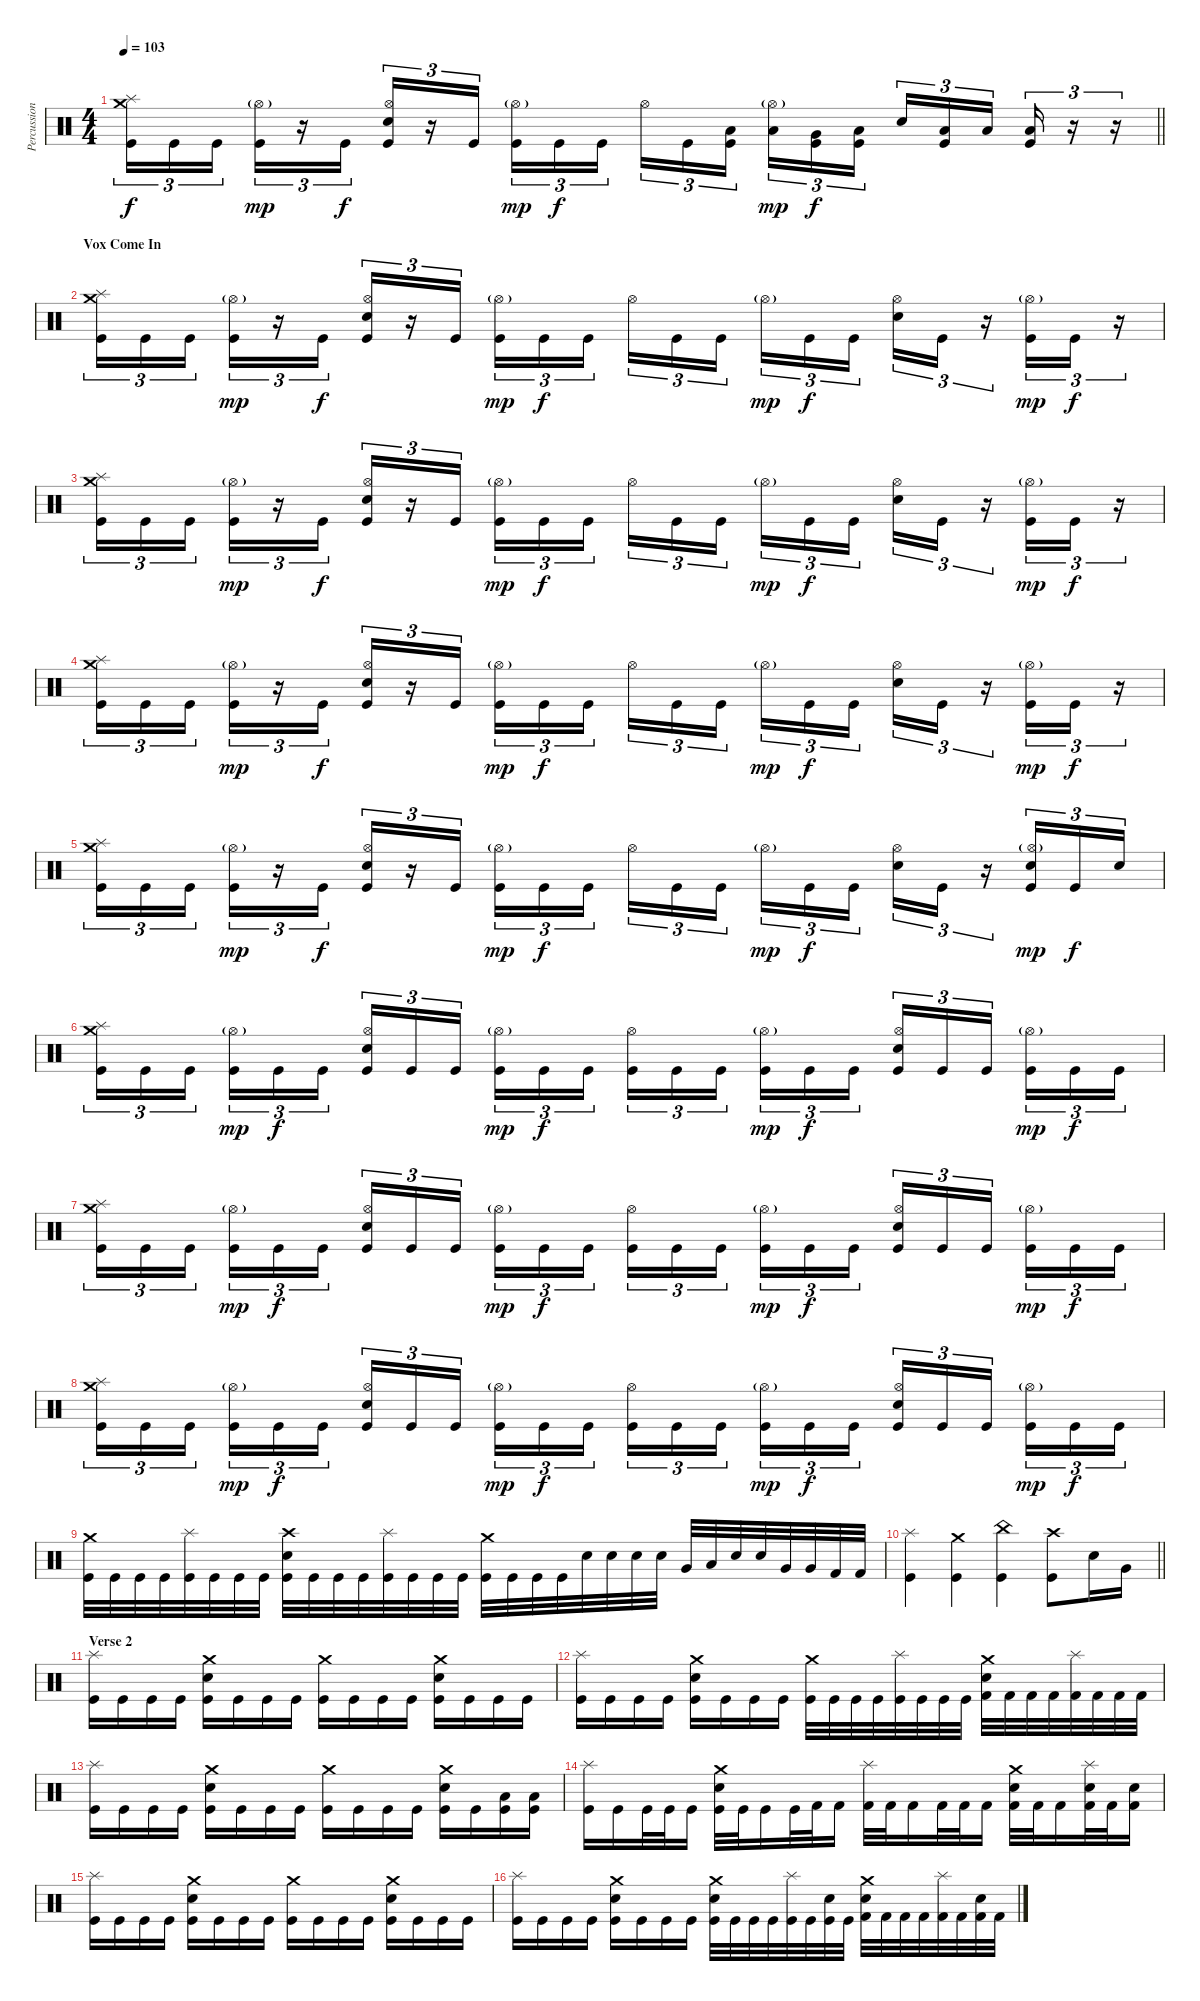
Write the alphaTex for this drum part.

\track ("Percussion" "Percussion") {instrument percussion}
\staff {score}
\articulation defaults
\ts (4 4)
\tempo 103
\clef neutral
\barLineRight lightlight
\ks c
("Crash medium (hit)" "Splash (hit)" "Kick (hit)").16{tu (3 2) dy f} "Kick (hit)".16{tu (3 2)} "Kick (hit)".16{tu (3 2) beam splitsecondary} ("Hi-Hat (open)"{g} "Kick (hit)").16{tu (3 2) dy mp} r.16{tu (3 2)} "Kick (hit)".16{tu (3 2) dy f} ("Hi-Hat (open)" "Electric Snare (hit)" "Kick (hit)").16{tu (3 2)} r.16{tu (3 2)} "Kick (hit)".16{tu (3 2) beam splitsecondary} ("Hi-Hat (open)"{g} "Kick (hit)").16{tu (3 2) dy mp} "Kick (hit)".16{tu (3 2) dy f} "Kick (hit)".16{tu (3 2)} "Hi-Hat (open)".16{tu (3 2)} "Kick (hit)".16{tu (3 2)} ("Low Tom (hit)" "Kick (hit)").16{tu (3 2) beam splitsecondary} ("Hi-Hat (open)"{g} "Low Tom (hit)").16{tu (3 2) dy mp} ("Very Low Tom (hit)" "Kick (hit)").16{tu (3 2) dy f} ("Low Tom (hit)" "Kick (hit)").16{tu (3 2)} "Electric Snare (hit)".16{tu (3 2)} ("Low Floor Tom (hit)" "Kick (hit)").16{tu (3 2)} "Low Floor Tom (hit)".16{tu (3 2) beam splitsecondary} ("Low Floor Tom (hit)" "Kick (hit)").16{tu (3 2)} r.16{tu (3 2)} r.16{tu (3 2)} |
\section ("" "Vox Come In")
("Crash medium (hit)" "Splash (hit)" "Kick (hit)").16{tu (3 2)} "Kick (hit)".16{tu (3 2)} "Kick (hit)".16{tu (3 2) beam splitsecondary} ("Hi-Hat (open)"{g} "Kick (hit)").16{tu (3 2) dy mp} r.16{tu (3 2)} "Kick (hit)".16{tu (3 2) dy f} ("Hi-Hat (open)" "Electric Snare (hit)" "Kick (hit)").16{tu (3 2)} r.16{tu (3 2)} "Kick (hit)".16{tu (3 2) beam splitsecondary} ("Hi-Hat (open)"{g} "Kick (hit)").16{tu (3 2) dy mp} "Kick (hit)".16{tu (3 2) dy f} "Kick (hit)".16{tu (3 2)} "Hi-Hat (open)".16{tu (3 2)} "Kick (hit)".16{tu (3 2)} "Kick (hit)".16{tu (3 2) beam splitsecondary} "Hi-Hat (open)"{g}.16{tu (3 2) dy mp} "Kick (hit)".16{tu (3 2) dy f} "Kick (hit)".16{tu (3 2)} ("Hi-Hat (open)" "Electric Snare (hit)").16{tu (3 2)} "Kick (hit)".16{tu (3 2)} r.16{tu (3 2)} ("Hi-Hat (open)"{g} "Kick (hit)").16{tu (3 2) dy mp} "Kick (hit)".16{tu (3 2) dy f} r.16{tu (3 2)} |
("Crash medium (hit)" "Splash (hit)" "Kick (hit)").16{tu (3 2)} "Kick (hit)".16{tu (3 2)} "Kick (hit)".16{tu (3 2) beam splitsecondary} ("Hi-Hat (open)"{g} "Kick (hit)").16{tu (3 2) dy mp} r.16{tu (3 2)} "Kick (hit)".16{tu (3 2) dy f} ("Hi-Hat (open)" "Electric Snare (hit)" "Kick (hit)").16{tu (3 2)} r.16{tu (3 2)} "Kick (hit)".16{tu (3 2) beam splitsecondary} ("Hi-Hat (open)"{g} "Kick (hit)").16{tu (3 2) dy mp} "Kick (hit)".16{tu (3 2) dy f} "Kick (hit)".16{tu (3 2)} "Hi-Hat (open)".16{tu (3 2)} "Kick (hit)".16{tu (3 2)} "Kick (hit)".16{tu (3 2) beam splitsecondary} "Hi-Hat (open)"{g}.16{tu (3 2) dy mp} "Kick (hit)".16{tu (3 2) dy f} "Kick (hit)".16{tu (3 2)} ("Hi-Hat (open)" "Electric Snare (hit)").16{tu (3 2)} "Kick (hit)".16{tu (3 2)} r.16{tu (3 2)} ("Hi-Hat (open)"{g} "Kick (hit)").16{tu (3 2) dy mp} "Kick (hit)".16{tu (3 2) dy f} r.16{tu (3 2)} |
("Crash medium (hit)" "Splash (hit)" "Kick (hit)").16{tu (3 2)} "Kick (hit)".16{tu (3 2)} "Kick (hit)".16{tu (3 2) beam splitsecondary} ("Hi-Hat (open)"{g} "Kick (hit)").16{tu (3 2) dy mp} r.16{tu (3 2)} "Kick (hit)".16{tu (3 2) dy f} ("Hi-Hat (open)" "Electric Snare (hit)" "Kick (hit)").16{tu (3 2)} r.16{tu (3 2)} "Kick (hit)".16{tu (3 2) beam splitsecondary} ("Hi-Hat (open)"{g} "Kick (hit)").16{tu (3 2) dy mp} "Kick (hit)".16{tu (3 2) dy f} "Kick (hit)".16{tu (3 2)} "Hi-Hat (open)".16{tu (3 2)} "Kick (hit)".16{tu (3 2)} "Kick (hit)".16{tu (3 2) beam splitsecondary} "Hi-Hat (open)"{g}.16{tu (3 2) dy mp} "Kick (hit)".16{tu (3 2) dy f} "Kick (hit)".16{tu (3 2)} ("Hi-Hat (open)" "Electric Snare (hit)").16{tu (3 2)} "Kick (hit)".16{tu (3 2)} r.16{tu (3 2)} ("Hi-Hat (open)"{g} "Kick (hit)").16{tu (3 2) dy mp} "Kick (hit)".16{tu (3 2) dy f} r.16{tu (3 2)} |
("Crash medium (hit)" "Splash (hit)" "Kick (hit)").16{tu (3 2)} "Kick (hit)".16{tu (3 2)} "Kick (hit)".16{tu (3 2) beam splitsecondary} ("Hi-Hat (open)"{g} "Kick (hit)").16{tu (3 2) dy mp} r.16{tu (3 2)} "Kick (hit)".16{tu (3 2) dy f} ("Hi-Hat (open)" "Electric Snare (hit)" "Kick (hit)").16{tu (3 2)} r.16{tu (3 2)} "Kick (hit)".16{tu (3 2) beam splitsecondary} ("Hi-Hat (open)"{g} "Kick (hit)").16{tu (3 2) dy mp} "Kick (hit)".16{tu (3 2) dy f} "Kick (hit)".16{tu (3 2)} "Hi-Hat (open)".16{tu (3 2)} "Kick (hit)".16{tu (3 2)} "Kick (hit)".16{tu (3 2) beam splitsecondary} "Hi-Hat (open)"{g}.16{tu (3 2) dy mp} "Kick (hit)".16{tu (3 2) dy f} "Kick (hit)".16{tu (3 2)} ("Hi-Hat (open)" "Electric Snare (hit)").16{tu (3 2)} "Kick (hit)".16{tu (3 2)} r.16{tu (3 2)} ("Hi-Hat (open)"{g} "Electric Snare (hit)" "Kick (hit)").16{tu (3 2) dy mp} "Kick (hit)".16{tu (3 2) dy f} "Electric Snare (hit)".16{tu (3 2)} |
("Crash medium (hit)" "Splash (hit)" "Kick (hit)").16{tu (3 2)} "Kick (hit)".16{tu (3 2)} "Kick (hit)".16{tu (3 2) beam splitsecondary} ("Hi-Hat (open)"{g} "Kick (hit)").16{tu (3 2) dy mp} "Kick (hit)".16{tu (3 2) dy f} "Kick (hit)".16{tu (3 2)} ("Hi-Hat (open)" "Electric Snare (hit)" "Kick (hit)").16{tu (3 2)} "Kick (hit)".16{tu (3 2)} "Kick (hit)".16{tu (3 2) beam splitsecondary} ("Hi-Hat (open)"{g} "Kick (hit)").16{tu (3 2) dy mp} "Kick (hit)".16{tu (3 2) dy f} "Kick (hit)".16{tu (3 2)} ("Hi-Hat (open)" "Kick (hit)").16{tu (3 2)} "Kick (hit)".16{tu (3 2)} "Kick (hit)".16{tu (3 2) beam splitsecondary} ("Hi-Hat (open)"{g} "Kick (hit)").16{tu (3 2) dy mp} "Kick (hit)".16{tu (3 2) dy f} "Kick (hit)".16{tu (3 2)} ("Hi-Hat (open)" "Electric Snare (hit)" "Kick (hit)").16{tu (3 2)} "Kick (hit)".16{tu (3 2)} "Kick (hit)".16{tu (3 2) beam splitsecondary} ("Hi-Hat (open)"{g} "Kick (hit)").16{tu (3 2) dy mp} "Kick (hit)".16{tu (3 2) dy f} "Kick (hit)".16{tu (3 2)} |
("Crash medium (hit)" "Splash (hit)" "Kick (hit)").16{tu (3 2)} "Kick (hit)".16{tu (3 2)} "Kick (hit)".16{tu (3 2) beam splitsecondary} ("Hi-Hat (open)"{g} "Kick (hit)").16{tu (3 2) dy mp} "Kick (hit)".16{tu (3 2) dy f} "Kick (hit)".16{tu (3 2)} ("Hi-Hat (open)" "Electric Snare (hit)" "Kick (hit)").16{tu (3 2)} "Kick (hit)".16{tu (3 2)} "Kick (hit)".16{tu (3 2) beam splitsecondary} ("Hi-Hat (open)"{g} "Kick (hit)").16{tu (3 2) dy mp} "Kick (hit)".16{tu (3 2) dy f} "Kick (hit)".16{tu (3 2)} ("Hi-Hat (open)" "Kick (hit)").16{tu (3 2)} "Kick (hit)".16{tu (3 2)} "Kick (hit)".16{tu (3 2) beam splitsecondary} ("Hi-Hat (open)"{g} "Kick (hit)").16{tu (3 2) dy mp} "Kick (hit)".16{tu (3 2) dy f} "Kick (hit)".16{tu (3 2)} ("Hi-Hat (open)" "Electric Snare (hit)" "Kick (hit)").16{tu (3 2)} "Kick (hit)".16{tu (3 2)} "Kick (hit)".16{tu (3 2) beam splitsecondary} ("Hi-Hat (open)"{g} "Kick (hit)").16{tu (3 2) dy mp} "Kick (hit)".16{tu (3 2) dy f} "Kick (hit)".16{tu (3 2)} |
("Crash medium (hit)" "Splash (hit)" "Kick (hit)").16{tu (3 2)} "Kick (hit)".16{tu (3 2)} "Kick (hit)".16{tu (3 2) beam splitsecondary} ("Hi-Hat (open)"{g} "Kick (hit)").16{tu (3 2) dy mp} "Kick (hit)".16{tu (3 2) dy f} "Kick (hit)".16{tu (3 2)} ("Hi-Hat (open)" "Electric Snare (hit)" "Kick (hit)").16{tu (3 2)} "Kick (hit)".16{tu (3 2)} "Kick (hit)".16{tu (3 2) beam splitsecondary} ("Hi-Hat (open)"{g} "Kick (hit)").16{tu (3 2) dy mp} "Kick (hit)".16{tu (3 2) dy f} "Kick (hit)".16{tu (3 2)} ("Hi-Hat (open)" "Kick (hit)").16{tu (3 2)} "Kick (hit)".16{tu (3 2)} "Kick (hit)".16{tu (3 2) beam splitsecondary} ("Hi-Hat (open)"{g} "Kick (hit)").16{tu (3 2) dy mp} "Kick (hit)".16{tu (3 2) dy f} "Kick (hit)".16{tu (3 2)} ("Hi-Hat (open)" "Electric Snare (hit)" "Kick (hit)").16{tu (3 2)} "Kick (hit)".16{tu (3 2)} "Kick (hit)".16{tu (3 2) beam splitsecondary} ("Hi-Hat (open)"{g} "Kick (hit)").16{tu (3 2) dy mp} "Kick (hit)".16{tu (3 2) dy f} "Kick (hit)".16{tu (3 2)} |
("Crash medium (hit)" "Kick (hit)").32 "Kick (hit)".32 "Kick (hit)".32 "Kick (hit)".32 ("Splash (hit)" "Kick (hit)").32 "Kick (hit)".32 "Kick (hit)".32 "Kick (hit)".32 ("Crash high (hit)" "Electric Snare (hit)" "Kick (hit)").32 "Kick (hit)".32 "Kick (hit)".32 "Kick (hit)".32 ("Splash (hit)" "Kick (hit)").32 "Kick (hit)".32 "Kick (hit)".32 "Kick (hit)".32 ("Crash medium (hit)" "Kick (hit)").32 "Kick (hit)".32 "Kick (hit)".32 "Kick (hit)".32 "Electric Snare (hit)".32 "Electric Snare (hit)".32 "Electric Snare (hit)".32 "Electric Snare (hit)".32 "Very Low Tom (hit)".32 "Low Floor Tom (hit)".32 "Electric Snare (hit)".32 "Electric Snare (hit)".32 "Very Low Tom (hit)".32 "Very Low Tom (hit)".32 "Kick (hit) 2".32 "Kick (hit) 2".32 |
\barLineRight lightlight
("Kick (hit)" "Splash (hit)").4 ("Kick (hit)" "Crash medium (hit)").4 ("Kick (hit)" "China (hit)").4 ("Kick (hit)" "Crash high (hit)").8 "Electric Snare (hit)".16 "Very Low Tom (hit)".16 |
\section ("" "Verse 2")
("Splash (hit)" "Kick (hit)").16 "Kick (hit)".16 "Kick (hit)".16 "Kick (hit)".16 ("Crash medium (hit)" "Electric Snare (hit)" "Kick (hit)").16 "Kick (hit)".16 "Kick (hit)".16 "Kick (hit)".16 ("Crash medium (hit)" "Kick (hit)").16 "Kick (hit)".16 "Kick (hit)".16 "Kick (hit)".16 ("Crash medium (hit)" "Electric Snare (hit)" "Kick (hit)").16 "Kick (hit)".16 "Kick (hit)".16 "Kick (hit)".16 |
("Splash (hit)" "Kick (hit)").16 "Kick (hit)".16 "Kick (hit)".16 "Kick (hit)".16 ("Crash medium (hit)" "Electric Snare (hit)" "Kick (hit)").16 "Kick (hit)".16 "Kick (hit)".16 "Kick (hit)".16 ("Crash medium (hit)" "Kick (hit)").32 "Kick (hit)".32 "Kick (hit)".32 "Kick (hit)".32 ("Splash (hit)" "Kick (hit)").32 "Kick (hit)".32 "Kick (hit)".32 "Kick (hit)".32 ("Crash medium (hit)" "Electric Snare (hit)" "Kick (hit) 2").32 "Kick (hit) 2".32 "Kick (hit) 2".32 "Kick (hit) 2".32 ("Splash (hit)" "Kick (hit) 2").32 "Kick (hit) 2".32 "Kick (hit) 2".32 "Kick (hit) 2".32 |
("Splash (hit)" "Kick (hit)").16 "Kick (hit)".16 "Kick (hit)".16 "Kick (hit)".16 ("Crash medium (hit)" "Electric Snare (hit)" "Kick (hit)").16 "Kick (hit)".16 "Kick (hit)".16 "Kick (hit)".16 ("Crash medium (hit)" "Kick (hit)").16 "Kick (hit)".16 "Kick (hit)".16 "Kick (hit)".16 ("Crash medium (hit)" "Electric Snare (hit)" "Kick (hit)").16 "Kick (hit)".16 ("Low Floor Tom (hit)" "Kick (hit)").16 ("Low Floor Tom (hit)" "Kick (hit)").16 |
("Splash (hit)" "Kick (hit)").16 "Kick (hit)".16 "Kick (hit)".32 "Kick (hit)".32 "Kick (hit)".16 ("Crash medium (hit)" "Electric Snare (hit)" "Kick (hit)").32 "Kick (hit)".32 "Kick (hit)".16 "Kick (hit)".32 "Kick (hit) 2".32 "Kick (hit) 2".16 ("Splash (hit)" "Kick (hit) 2").32 "Kick (hit) 2".32 "Kick (hit) 2".16 "Kick (hit) 2".32 "Kick (hit) 2".32 "Kick (hit) 2".16 ("Crash medium (hit)" "Electric Snare (hit)" "Kick (hit) 2").32 "Kick (hit) 2".32 "Kick (hit) 2".16 ("Splash (hit)" "Electric Snare (hit)" "Kick (hit) 2").32 "Kick (hit) 2".32 ("Electric Snare (hit)" "Kick (hit) 2").16 |
("Splash (hit)" "Kick (hit)").16 "Kick (hit)".16 "Kick (hit)".16 "Kick (hit)".16 ("Crash medium (hit)" "Electric Snare (hit)" "Kick (hit)").16 "Kick (hit)".16 "Kick (hit)".16 "Kick (hit)".16 ("Crash medium (hit)" "Kick (hit)").16 "Kick (hit)".16 "Kick (hit)".16 "Kick (hit)".16 ("Crash medium (hit)" "Electric Snare (hit)" "Kick (hit)").16 "Kick (hit)".16 "Kick (hit)".16 "Kick (hit)".16 |
("Splash (hit)" "Kick (hit)").16 "Kick (hit)".16 "Kick (hit)".16 "Kick (hit)".16 ("Crash medium (hit)" "Electric Snare (hit)" "Kick (hit)").16 "Kick (hit)".16 "Kick (hit)".16 "Kick (hit)".16 ("Crash medium (hit)" "Electric Snare (hit)" "Kick (hit)").32 "Kick (hit)".32 "Kick (hit)".32 "Kick (hit)".32 ("Splash (hit)" "Kick (hit)").32 "Kick (hit)".32 ("Electric Snare (hit)" "Kick (hit)").32 "Kick (hit)".32 ("Crash medium (hit)" "Electric Snare (hit)" "Kick (hit) 2").32 "Kick (hit) 2".32 "Kick (hit) 2".32 "Kick (hit) 2".32 ("Splash (hit)" "Kick (hit) 2").32 "Kick (hit) 2".32 ("Electric Snare (hit)" "Kick (hit) 2").32 "Kick (hit) 2".32
